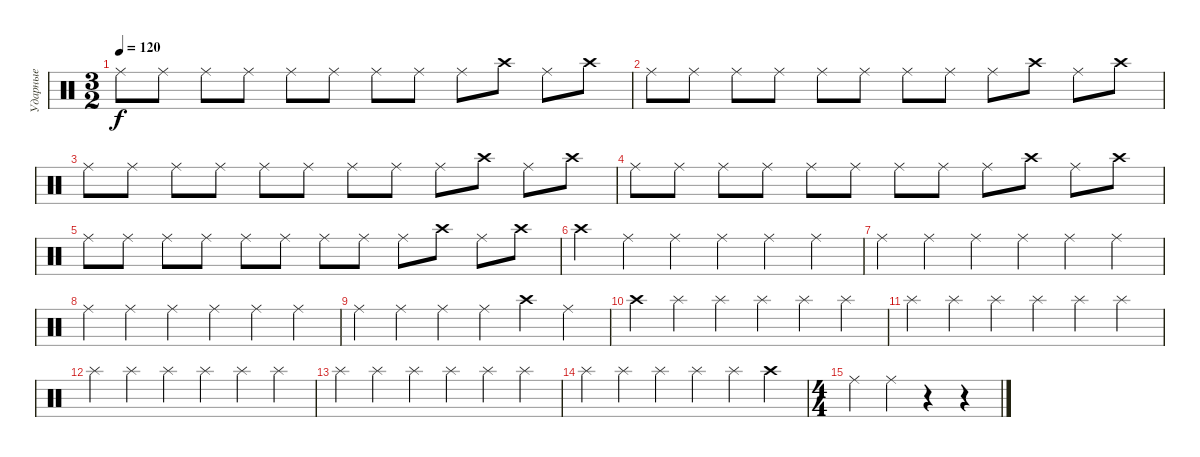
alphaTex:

\track ("Ударные" "Ударные") {instrument percussion}
\staff {score}
\articulation defaults
\ts (3 2)
\tempo 120
\clef neutral
\ks c "Ride (middle)".8{dy f} "Ride (middle)".8 "Ride (middle)".8 "Ride (middle)".8 "Ride (middle)".8 "Ride (middle)".8 "Ride (middle)".8 "Ride (middle)".8 "Ride (middle)".8 "Crash high (hit)".8 "Ride (middle)".8 "Crash high (hit)".8
|
"Ride (middle)".8 "Ride (middle)".8 "Ride (middle)".8 "Ride (middle)".8 "Ride (middle)".8 "Ride (middle)".8 "Ride (middle)".8 "Ride (middle)".8 "Ride (middle)".8 "Crash high (hit)".8 "Ride (middle)".8 "Crash high (hit)".8 |
"Ride (middle)".8 "Ride (middle)".8 "Ride (middle)".8 "Ride (middle)".8 "Ride (middle)".8 "Ride (middle)".8 "Ride (middle)".8 "Ride (middle)".8 "Ride (middle)".8 "Crash high (hit)".8 "Ride (middle)".8 "Crash high (hit)".8 |
"Ride (middle)".8 "Ride (middle)".8 "Ride (middle)".8 "Ride (middle)".8 "Ride (middle)".8 "Ride (middle)".8 "Ride (middle)".8 "Ride (middle)".8 "Ride (middle)".8 "Crash high (hit)".8 "Ride (middle)".8 "Crash high (hit)".8 |
"Ride (middle)".8 "Ride (middle)".8 "Ride (middle)".8 "Ride (middle)".8 "Ride (middle)".8 "Ride (middle)".8 "Ride (middle)".8 "Ride (middle)".8 "Ride (middle)".8 "Crash high (hit)".8 "Ride (middle)".8 "Crash high (hit)".8 |
"Crash high (hit)".4 "Ride (middle)".4 "Ride (middle)".4 "Ride (middle)".4 "Ride (middle)".4 "Ride (middle)".4 |
"Ride (middle)".4 "Ride (middle)".4 "Ride (middle)".4 "Ride (middle)".4 "Ride (middle)".4 "Ride (middle)".4 |
"Ride (middle)".4 "Ride (middle)".4 "Ride (middle)".4 "Ride (middle)".4 "Ride (middle)".4 "Ride (middle)".4 |
"Ride (middle)".4 "Ride (middle)".4 "Ride (middle)".4 "Ride (middle)".4 "Crash high (hit)".4 "Ride (middle)".4 |
"Crash high (hit)".4 "Splash (hit)".4 "Splash (hit)".4 "Splash (hit)".4 "Splash (hit)".4 "Splash (hit)".4 |
"Splash (hit)".4 "Splash (hit)".4 "Splash (hit)".4 "Splash (hit)".4 "Splash (hit)".4 "Splash (hit)".4 |
"Splash (hit)".4 "Splash (hit)".4 "Splash (hit)".4 "Splash (hit)".4 "Splash (hit)".4 "Splash (hit)".4 |
"Splash (hit)".4 "Splash (hit)".4 "Splash (hit)".4 "Splash (hit)".4 "Splash (hit)".4 "Splash (hit)".4 |
"Splash (hit)".4 "Splash (hit)".4 "Splash (hit)".4 "Splash (hit)".4 "Splash (hit)".4 "Crash high (hit)".4 |
\ts (4 4)
"Ride (middle)".4 "Ride (middle)".4 r.4 r.4
